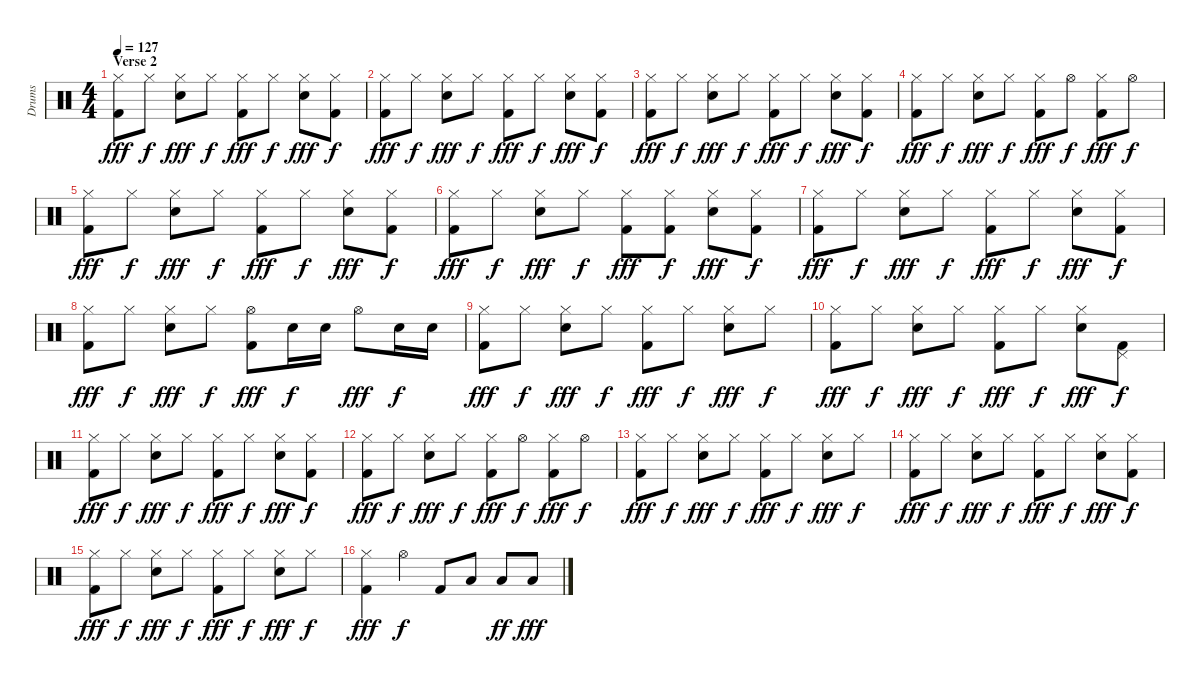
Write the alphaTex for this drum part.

\track ("Drums" "Drums") {instrument percussion}
\staff {score}
\articulation defaults
\ts (4 4)
\section ("" "Verse 2")
\tempo 127
\clef neutral
\ks c
("Hi-Hat (closed)" "Kick (hit) 2").8{dy fff} "Hi-Hat (closed)".8{dy f} ("Hi-Hat (closed)" "Snare (hit) 2").8{dy fff} "Hi-Hat (closed)".8{dy f} ("Hi-Hat (closed)" "Kick (hit) 2").8{dy fff} "Hi-Hat (closed)".8{dy f} ("Hi-Hat (closed)" "Snare (hit) 2").8{dy fff} ("Hi-Hat (closed)" "Kick (hit) 2").8{dy f} |
("Hi-Hat (closed)" "Kick (hit) 2").8{dy fff} "Hi-Hat (closed)".8{dy f} ("Hi-Hat (closed)" "Snare (hit) 2").8{dy fff} "Hi-Hat (closed)".8{dy f} ("Hi-Hat (closed)" "Kick (hit) 2").8{dy fff} "Hi-Hat (closed)".8{dy f} ("Hi-Hat (closed)" "Snare (hit) 2").8{dy fff} ("Hi-Hat (closed)" "Kick (hit) 2").8{dy f} |
("Hi-Hat (closed)" "Kick (hit) 2").8{dy fff} "Hi-Hat (closed)".8{dy f} ("Hi-Hat (closed)" "Snare (hit) 2").8{dy fff} "Hi-Hat (closed)".8{dy f} ("Hi-Hat (closed)" "Kick (hit) 2").8{dy fff} "Hi-Hat (closed)".8{dy f} ("Hi-Hat (closed)" "Snare (hit) 2").8{dy fff} ("Hi-Hat (closed)" "Kick (hit) 2").8{dy f} |
("Hi-Hat (closed)" "Kick (hit) 2").8{dy fff} "Hi-Hat (closed)".8{dy f} ("Hi-Hat (closed)" "Snare (hit) 2").8{dy fff} "Hi-Hat (closed)".8{dy f} ("Hi-Hat (closed)" "Kick (hit) 2").8{dy fff} "Hi-Hat (open)".8{dy f} ("Hi-Hat (closed)" "Kick (hit) 2").8{dy fff} "Hi-Hat (open)".8{dy f} |
("Hi-Hat (closed)" "Kick (hit) 2").8{dy fff} "Hi-Hat (closed)".8{dy f} ("Hi-Hat (closed)" "Snare (hit) 2").8{dy fff} "Hi-Hat (closed)".8{dy f} ("Hi-Hat (closed)" "Kick (hit) 2").8{dy fff} "Hi-Hat (closed)".8{dy f} ("Hi-Hat (closed)" "Snare (hit) 2").8{dy fff} ("Hi-Hat (closed)" "Kick (hit) 2").8{dy f} |
("Hi-Hat (closed)" "Kick (hit) 2").8{dy fff} "Hi-Hat (closed)".8{dy f} ("Hi-Hat (closed)" "Snare (hit) 2").8{dy fff} "Hi-Hat (closed)".8{dy f} ("Hi-Hat (closed)" "Kick (hit) 2").8{dy fff} ("Hi-Hat (closed)" "Kick (hit) 2").8{dy f} ("Hi-Hat (closed)" "Snare (hit) 2").8{dy fff} ("Hi-Hat (closed)" "Kick (hit) 2").8{dy f} |
("Hi-Hat (closed)" "Kick (hit) 2").8{dy fff} "Hi-Hat (closed)".8{dy f} ("Hi-Hat (closed)" "Snare (hit) 2").8{dy fff} "Hi-Hat (closed)".8{dy f} ("Hi-Hat (closed)" "Kick (hit) 2").8{dy fff} "Hi-Hat (closed)".8{dy f} ("Hi-Hat (closed)" "Snare (hit) 2").8{dy fff} ("Hi-Hat (closed)" "Kick (hit) 2").8{dy f} |
("Hi-Hat (closed)" "Kick (hit) 2").8{dy fff} "Hi-Hat (closed)".8{dy f} ("Hi-Hat (closed)" "Snare (hit) 2").8{dy fff} "Hi-Hat (closed)".8{dy f} ("Hi-Hat (open)" "Kick (hit) 2").8{dy fff} "Snare (hit) 2".16{dy f} "Snare (hit) 2".16 "Hi-Hat (open)".8{dy fff} "Snare (hit) 2".16{dy f} "Snare (hit) 2".16 |
("Hi-Hat (closed)" "Kick (hit) 2").8{dy fff} "Hi-Hat (closed)".8{dy f} ("Hi-Hat (closed)" "Snare (hit) 2").8{dy fff} "Hi-Hat (closed)".8{dy f} ("Hi-Hat (closed)" "Kick (hit) 2").8{dy fff} "Hi-Hat (closed)".8{dy f} ("Hi-Hat (closed)" "Snare (hit) 2").8{dy fff} "Hi-Hat (closed)".8{dy f} |
("Hi-Hat (closed)" "Kick (hit) 2").8{dy fff} "Hi-Hat (closed)".8{dy f} ("Hi-Hat (closed)" "Snare (hit) 2").8{dy fff} "Hi-Hat (closed)".8{dy f} ("Hi-Hat (closed)" "Kick (hit) 2").8{dy fff} "Hi-Hat (closed)".8{dy f} ("Hi-Hat (closed)" "Snare (hit) 2").8{dy fff} ("Pedal Hi-Hat (hit)" "Kick (hit) 2").8{dy f} |
("Hi-Hat (closed)" "Kick (hit) 2").8{dy fff} "Hi-Hat (closed)".8{dy f} ("Hi-Hat (closed)" "Snare (hit) 2").8{dy fff} "Hi-Hat (closed)".8{dy f} ("Hi-Hat (closed)" "Kick (hit) 2").8{dy fff} "Hi-Hat (closed)".8{dy f} ("Hi-Hat (closed)" "Snare (hit) 2").8{dy fff} ("Hi-Hat (closed)" "Kick (hit) 2").8{dy f} |
("Hi-Hat (closed)" "Kick (hit) 2").8{dy fff} "Hi-Hat (closed)".8{dy f} ("Hi-Hat (closed)" "Snare (hit) 2").8{dy fff} "Hi-Hat (closed)".8{dy f} ("Hi-Hat (closed)" "Kick (hit) 2").8{dy fff} "Hi-Hat (open)".8{dy f} ("Hi-Hat (closed)" "Kick (hit) 2").8{dy fff} "Hi-Hat (open)".8{dy f} |
("Hi-Hat (closed)" "Kick (hit) 2").8{dy fff} "Hi-Hat (closed)".8{dy f} ("Hi-Hat (closed)" "Snare (hit) 2").8{dy fff} "Hi-Hat (closed)".8{dy f} ("Hi-Hat (closed)" "Kick (hit) 2").8{dy fff} "Hi-Hat (closed)".8{dy f} ("Hi-Hat (closed)" "Snare (hit) 2").8{dy fff} "Hi-Hat (closed)".8{dy f} |
("Hi-Hat (closed)" "Kick (hit) 2").8{dy fff} "Hi-Hat (closed)".8{dy f} ("Hi-Hat (closed)" "Snare (hit) 2").8{dy fff} "Hi-Hat (closed)".8{dy f} ("Hi-Hat (closed)" "Kick (hit) 2").8{dy fff} "Hi-Hat (closed)".8{dy f} ("Hi-Hat (closed)" "Snare (hit) 2").8{dy fff} ("Hi-Hat (closed)" "Kick (hit) 2").8{dy f} |
("Hi-Hat (closed)" "Kick (hit) 2").8{dy fff} "Hi-Hat (closed)".8{dy f} ("Hi-Hat (closed)" "Snare (hit) 2").8{dy fff} "Hi-Hat (closed)".8{dy f} ("Hi-Hat (closed)" "Kick (hit) 2").8{dy fff} "Hi-Hat (closed)".8{dy f} ("Hi-Hat (closed)" "Snare (hit) 2").8{dy fff} "Hi-Hat (closed)".8{dy f} |
("Hi-Hat (closed)" "Kick (hit) 2").4{dy fff} "Hi-Hat (open)".4{dy f} "Kick (hit) 2".8 "Low Tom (hit)".8 "Low Tom (hit)".8{dy ff} "Low Tom (hit)".8{dy fff}
